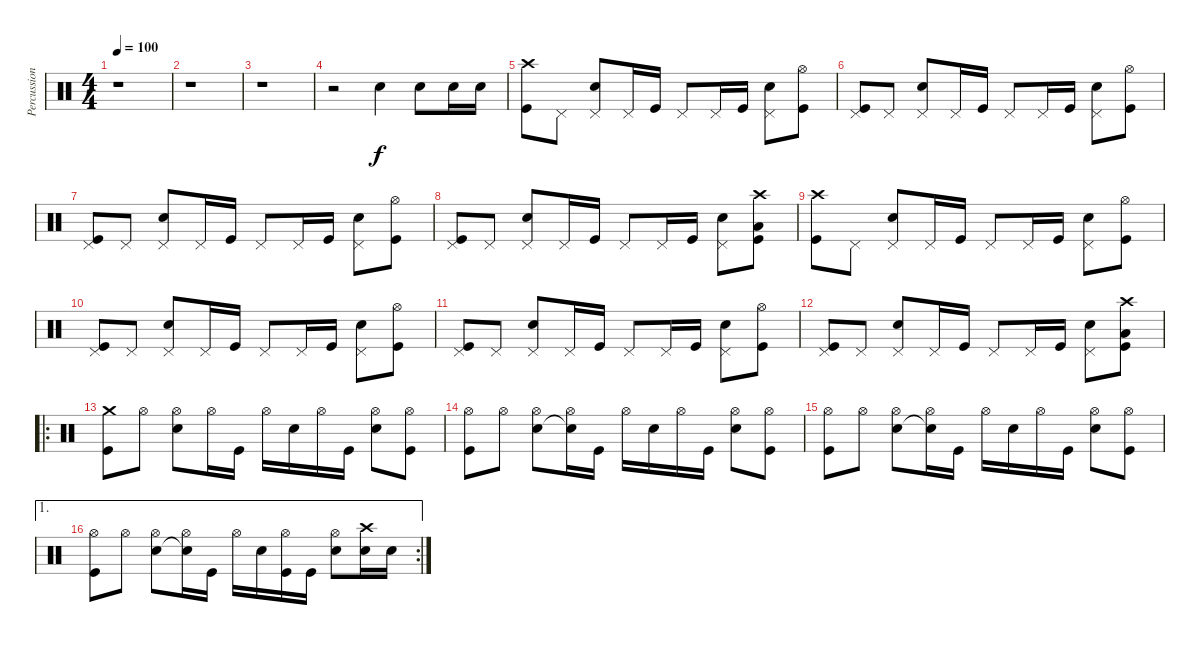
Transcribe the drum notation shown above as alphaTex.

\track ("Percussions" "Percussion") {instrument percussion}
\staff {score}
\articulation defaults
\ts (4 4)
\tempo 100
\clef neutral
\ks c
r.1{dy f} |
r.1 |
r.1 |
r.2 "Snare (hit) 2".4 "Snare (hit) 2".8 "Snare (hit) 2".16 "Snare (hit) 2".16 |
("Crash high (hit)" "Kick (hit)").8 "Pedal Hi-Hat (hit)".8 ("Pedal Hi-Hat (hit)" "Snare (hit) 2").8 "Pedal Hi-Hat (hit)".16 "Kick (hit)".16 "Pedal Hi-Hat (hit)".8 "Pedal Hi-Hat (hit)".16 "Kick (hit)".16 ("Pedal Hi-Hat (hit)" "Snare (hit) 2").8 ("Hi-Hat (open)" "Kick (hit)").8 |
("Pedal Hi-Hat (hit)" "Kick (hit)").8 "Pedal Hi-Hat (hit)".8 ("Pedal Hi-Hat (hit)" "Snare (hit) 2").8 "Pedal Hi-Hat (hit)".16 "Kick (hit)".16 "Pedal Hi-Hat (hit)".8 "Pedal Hi-Hat (hit)".16 "Kick (hit)".16 ("Pedal Hi-Hat (hit)" "Snare (hit) 2").8 ("Hi-Hat (open)" "Kick (hit)").8 |
("Pedal Hi-Hat (hit)" "Kick (hit)").8 "Pedal Hi-Hat (hit)".8 ("Pedal Hi-Hat (hit)" "Snare (hit) 2").8 "Pedal Hi-Hat (hit)".16 "Kick (hit)".16 "Pedal Hi-Hat (hit)".8 "Pedal Hi-Hat (hit)".16 "Kick (hit)".16 ("Pedal Hi-Hat (hit)" "Snare (hit) 2").8 ("Hi-Hat (open)" "Kick (hit)").8 |
("Pedal Hi-Hat (hit)" "Kick (hit)").8 "Pedal Hi-Hat (hit)".8 ("Pedal Hi-Hat (hit)" "Snare (hit) 2").8 "Pedal Hi-Hat (hit)".16 "Kick (hit)".16 "Pedal Hi-Hat (hit)".8 "Pedal Hi-Hat (hit)".16 "Kick (hit)".16 ("Pedal Hi-Hat (hit)" "Snare (hit) 2").8 ("Crash high (hit)" "Low Tom (hit)" "Kick (hit)").8 |
("Crash high (hit)" "Kick (hit)").8 "Pedal Hi-Hat (hit)".8 ("Pedal Hi-Hat (hit)" "Snare (hit) 2").8 "Pedal Hi-Hat (hit)".16 "Kick (hit)".16 "Pedal Hi-Hat (hit)".8 "Pedal Hi-Hat (hit)".16 "Kick (hit)".16 ("Pedal Hi-Hat (hit)" "Snare (hit) 2").8 ("Hi-Hat (open)" "Kick (hit)").8 |
("Pedal Hi-Hat (hit)" "Kick (hit)").8 "Pedal Hi-Hat (hit)".8 ("Pedal Hi-Hat (hit)" "Snare (hit) 2").8 "Pedal Hi-Hat (hit)".16 "Kick (hit)".16 "Pedal Hi-Hat (hit)".8 "Pedal Hi-Hat (hit)".16 "Kick (hit)".16 ("Pedal Hi-Hat (hit)" "Snare (hit) 2").8 ("Hi-Hat (open)" "Kick (hit)").8 |
("Pedal Hi-Hat (hit)" "Kick (hit)").8 "Pedal Hi-Hat (hit)".8 ("Pedal Hi-Hat (hit)" "Snare (hit) 2").8 "Pedal Hi-Hat (hit)".16 "Kick (hit)".16 "Pedal Hi-Hat (hit)".8 "Pedal Hi-Hat (hit)".16 "Kick (hit)".16 ("Pedal Hi-Hat (hit)" "Snare (hit) 2").8 ("Hi-Hat (open)" "Kick (hit)").8 |
("Pedal Hi-Hat (hit)" "Kick (hit)").8 "Pedal Hi-Hat (hit)".8 ("Pedal Hi-Hat (hit)" "Snare (hit) 2").8 "Pedal Hi-Hat (hit)".16 "Kick (hit)".16 "Pedal Hi-Hat (hit)".8 "Pedal Hi-Hat (hit)".16 "Kick (hit)".16 ("Pedal Hi-Hat (hit)" "Snare (hit) 2").8 ("Crash high (hit)" "Low Tom (hit)" "Kick (hit)").8 |
\ro
("Crash medium (hit)" "Kick (hit)").8 "Hi-Hat (open)".8 ("Hi-Hat (open)" "Snare (hit) 2").8 "Hi-Hat (open)".16 "Kick (hit)".16 "Hi-Hat (open)".16 "Snare (hit) 2".16 "Hi-Hat (open)".16 "Kick (hit)".16 ("Hi-Hat (open)" "Snare (hit) 2").8 ("Hi-Hat (open)" "Kick (hit)").8 |
("Hi-Hat (open)" "Kick (hit)").8 "Hi-Hat (open)".8 ("Hi-Hat (open)" "Snare (hit) 2").8 ("Hi-Hat (open)" "Snare (hit)"{t}).16 "Kick (hit)".16 "Hi-Hat (open)".16 "Snare (hit) 2".16 "Hi-Hat (open)".16 "Kick (hit)".16 ("Hi-Hat (open)" "Snare (hit) 2").8 ("Hi-Hat (open)" "Kick (hit)").8 |
("Hi-Hat (open)" "Kick (hit)").8 "Hi-Hat (open)".8 ("Hi-Hat (open)" "Snare (hit) 2").8 ("Hi-Hat (open)" "Snare (hit)"{t}).16 "Kick (hit)".16 "Hi-Hat (open)".16 "Snare (hit) 2".16 "Hi-Hat (open)".16 "Kick (hit)".16 ("Hi-Hat (open)" "Snare (hit) 2").8 ("Hi-Hat (open)" "Kick (hit)").8 |
\ae 1
\rc 2
("Hi-Hat (open)" "Kick (hit)").8 "Hi-Hat (open)".8 ("Hi-Hat (open)" "Snare (hit) 2").8 ("Hi-Hat (open)" "Snare (hit)"{t}).16 "Kick (hit)".16 "Hi-Hat (open)".16 "Snare (hit) 2".16 ("Hi-Hat (open)" "Kick (hit)").16 "Kick (hit)".16 ("Hi-Hat (open)" "Snare (hit) 2").8 ("Crash high (hit)" "Snare (hit) 2").16 "Snare (hit) 2".16
